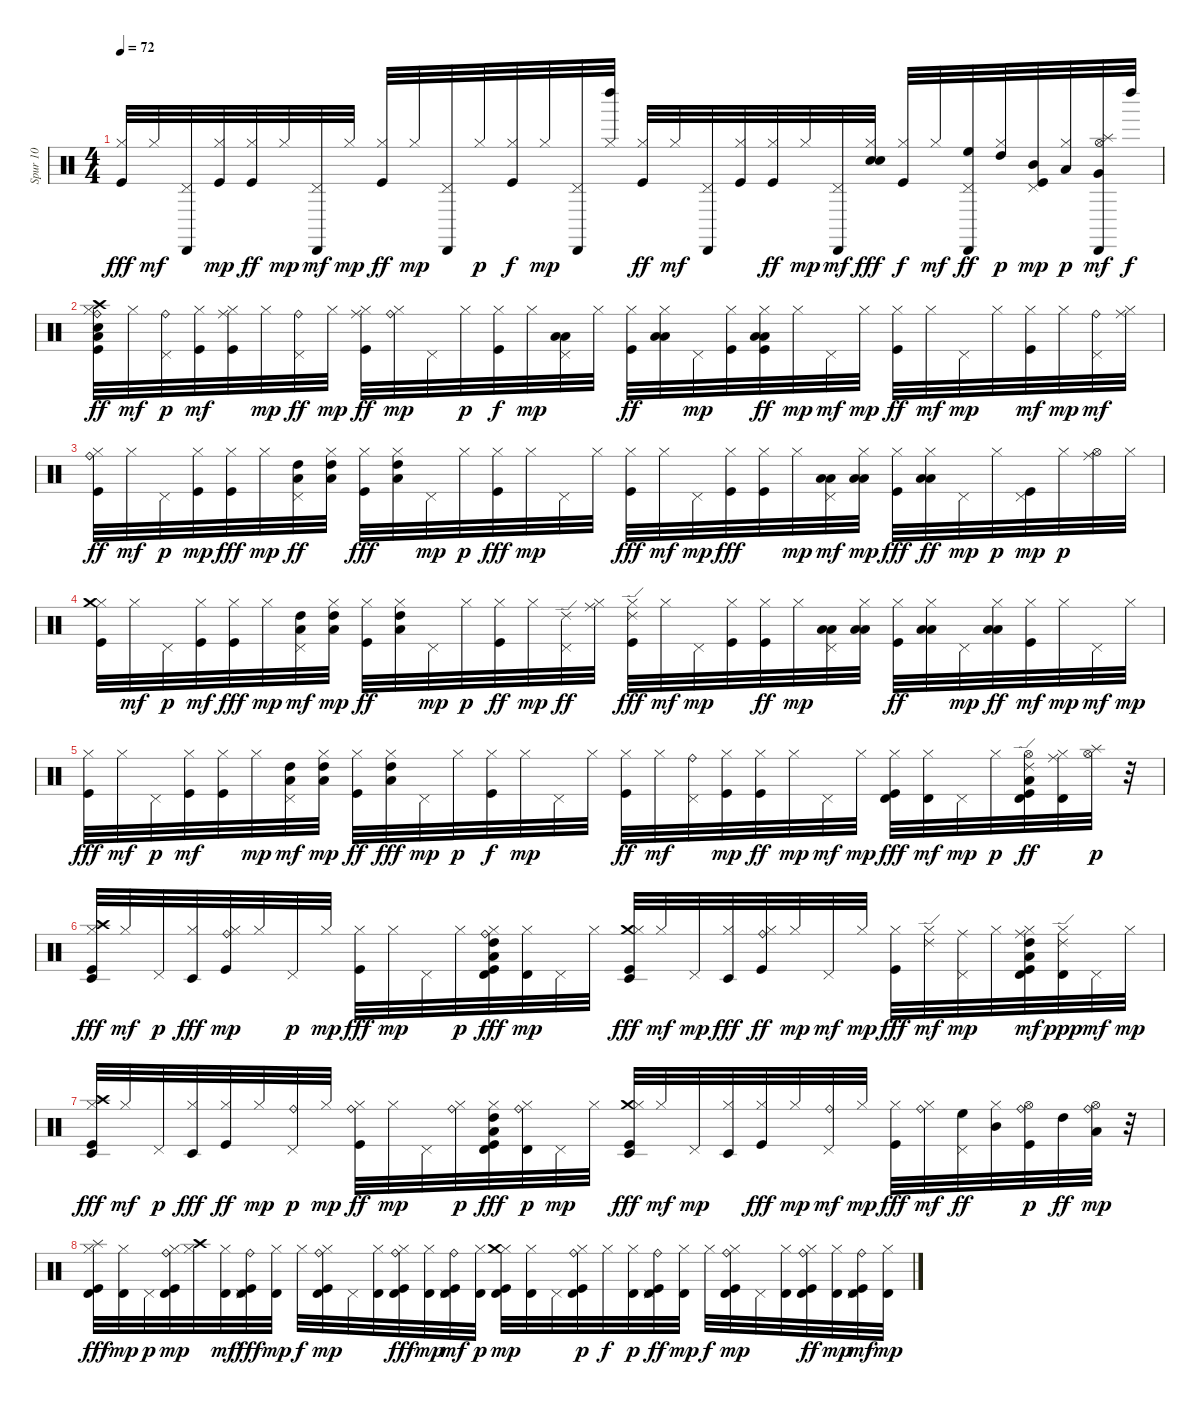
\track ("Spur 10" "Spur 10") {instrument percussion}
\staff {score}
\articulation defaults
\ts (4 4)
\tempo 72
\clef neutral
\ks c
("Kick (hit)" "Hi-Hat (closed)").32{dy fff} "Hi-Hat (closed)".32{dy mf} ("Pedal Hi-Hat (hit)" "Cabasa (hit)").32 ("Hi-Hat (closed)" "Kick (hit)").32{dy mp} ("Hi-Hat (closed)" "Kick (hit)").32{dy ff} "Hi-Hat (closed)".32{dy mp} ("Pedal Hi-Hat (hit)" "Cabasa (hit)").32{dy mf} "Hi-Hat (closed)".32{dy mp} ("Hi-Hat (closed)" "Kick (hit)").32{dy ff} "Hi-Hat (closed)".32{dy mp} ("Pedal Hi-Hat (hit)" "Cabasa (hit)").32 "Hi-Hat (closed)".32{dy p} ("Kick (hit)" "Hi-Hat (closed)").32{dy f} "Hi-Hat (closed)".32{dy mp} ("Pedal Hi-Hat (hit)" "Cabasa (hit)").32 ("Left Maraca (hit)" "Hi-Hat (closed)").32 ("Kick (hit)" "Hi-Hat (closed)").32{dy ff} "Hi-Hat (closed)".32{dy mf} ("Pedal Hi-Hat (hit)" "Cabasa (hit)").32 ("Hi-Hat (closed)" "Kick (hit)").32 ("Hi-Hat (closed)" "Kick (hit)").32{dy ff} "Hi-Hat (closed)".32{dy mp} ("Pedal Hi-Hat (hit)" "Cabasa (hit)").32{dy mf} ("Hi-Hat (closed)" "Electric Snare (hit)" "Hand Clap (hit)").32{dy fff} ("Hi-Hat (closed)" "Kick (hit)").32{dy f} "Hi-Hat (closed)".32{dy mf} ("Pedal Hi-Hat (hit)" "Cabasa (hit)" "High Floor Tom (hit)").32{dy ff} ("Hi-Hat (closed)" "High Tom (hit)").32{dy p} ("Kick (hit)" "Pedal Hi-Hat (hit)" "Mid Tom (hit)").32{dy mp} ("Low Tom (hit)" "Hi-Hat (closed)").32{dy p} ("Very Low Tom (hit)" "Splash (hit)" "Cabasa (hit)" "Hi-Hat (open)").32{dy mf} "Left Maraca (hit)".32{dy f} |
("Kick (hit)" "Hi-Hat (closed)" "Electric Snare (hit)" "Ride (bell)" "Low Floor Tom (hit)" "Crash high (hit)").32{dy ff} "Hi-Hat (closed)".32{dy mf} ("Ride (bell)" "Pedal Hi-Hat (hit)").32{dy p} ("Hi-Hat (closed)" "Kick (hit)").32{dy mf} ("Hi-Hat (closed)" "Kick (hit)" "Ride (middle)").32 "Hi-Hat (closed)".32{dy mp} ("Pedal Hi-Hat (hit)" "Ride (bell)").32{dy ff} "Hi-Hat (closed)".32{dy mp} ("Ride (middle)" "Hi-Hat (closed)" "Kick (hit)").32{dy ff} ("Ride (bell)" "Hi-Hat (closed)").32{dy mp} "Pedal Hi-Hat (hit)".32 "Hi-Hat (closed)".32{dy p} ("Kick (hit)" "Hi-Hat (closed)").32{dy f} "Hi-Hat (closed)".32{dy mp} ("Low Floor Tom (hit)" "Pedal Hi-Hat (hit)" "Low Tom (hit)").32 "Hi-Hat (closed)".32 ("Kick (hit)" "Hi-Hat (closed)").32{dy ff} ("Low Floor Tom (hit)" "Hi-Hat (closed)" "Low Tom (hit)").32 "Pedal Hi-Hat (hit)".32{dy mp} ("Hi-Hat (closed)" "Kick (hit)").32 ("Hi-Hat (closed)" "Low Floor Tom (hit)" "Kick (hit)" "Low Tom (hit)").32{dy ff} "Hi-Hat (closed)".32{dy mp} "Pedal Hi-Hat (hit)".32{dy mf} "Hi-Hat (closed)".32{dy mp} ("Hi-Hat (closed)" "Kick (hit)").32{dy ff} "Hi-Hat (closed)".32{dy mf} "Pedal Hi-Hat (hit)".32{dy mp} "Hi-Hat (closed)".32 ("Kick (hit)" "Hi-Hat (closed)").32{dy mf} "Hi-Hat (closed)".32{dy mp} ("Pedal Hi-Hat (hit)" "Ride (bell)").32{dy mf} ("Hi-Hat (closed)" "Ride (middle)").32 |
("Kick (hit)" "Hi-Hat (closed)" "Ride (bell)").32{dy ff} "Hi-Hat (closed)".32{dy mf} "Pedal Hi-Hat (hit)".32{dy p} ("Hi-Hat (closed)" "Kick (hit)").32{dy mp} ("Hi-Hat (closed)" "Kick (hit)").32{dy fff} "Hi-Hat (closed)".32{dy mp} ("Pedal Hi-Hat (hit)" "High Tom (hit)" "Low Tom (hit)").32{dy ff} ("Hi-Hat (closed)" "High Tom (hit)" "Low Tom (hit)").32 ("Hi-Hat (closed)" "Kick (hit)").32{dy fff} ("Hi-Hat (closed)" "High Tom (hit)" "Low Tom (hit)").32 "Pedal Hi-Hat (hit)".32{dy mp} "Hi-Hat (closed)".32{dy p} ("Kick (hit)" "Hi-Hat (closed)").32{dy fff} "Hi-Hat (closed)".32{dy mp} "Pedal Hi-Hat (hit)".32 "Hi-Hat (closed)".32 ("Kick (hit)" "Hi-Hat (closed)").32{dy fff} "Hi-Hat (closed)".32{dy mf} "Pedal Hi-Hat (hit)".32{dy mp} ("Hi-Hat (closed)" "Kick (hit)").32{dy fff} ("Hi-Hat (closed)" "Kick (hit)").32 "Hi-Hat (closed)".32{dy mp} ("Pedal Hi-Hat (hit)" "Low Tom (hit)" "Low Floor Tom (hit)").32{dy mf} ("Hi-Hat (closed)" "Low Tom (hit)" "Low Floor Tom (hit)").32{dy mp} ("Hi-Hat (closed)" "Kick (hit)").32{dy fff} ("Hi-Hat (closed)" "Low Floor Tom (hit)" "Low Tom (hit)").32{dy ff} "Pedal Hi-Hat (hit)".32{dy mp} "Hi-Hat (closed)".32{dy p} ("Kick (hit)" "Pedal Hi-Hat (hit)").32{dy mp} "Hi-Hat (closed)".32{dy p} ("Ride (middle)" "Hi-Hat (open)").32 "Hi-Hat (closed)".32 |
("Kick (hit)" "Hi-Hat (closed)" "Crash medium (hit)").32 "Hi-Hat (closed)".32{dy mf} "Pedal Hi-Hat (hit)".32{dy p} ("Hi-Hat (closed)" "Kick (hit)").32{dy mf} ("Hi-Hat (closed)" "Kick (hit)").32{dy fff} "Hi-Hat (closed)".32{dy mp} ("Pedal Hi-Hat (hit)" "High Tom (hit)" "Low Tom (hit)").32{dy mf} ("Hi-Hat (closed)" "High Tom (hit)" "Low Tom (hit)").32{dy mp} ("Hi-Hat (closed)" "Kick (hit)").32{dy ff} ("Hi-Hat (closed)" "Low Tom (hit)" "High Tom (hit)").32 "Pedal Hi-Hat (hit)".32{dy mp} "Hi-Hat (closed)".32{dy p} ("Kick (hit)" "Hi-Hat (closed)").32{dy ff} "Hi-Hat (closed)".32{dy mp} ("Pedal Hi-Hat (hit)" "Ride (edge) 2").32{dy ff} ("Hi-Hat (closed)" "Ride (middle)").32 ("Kick (hit)" "Hi-Hat (closed)" "Ride (edge) 2").32{dy fff} "Hi-Hat (closed)".32{dy mf} "Pedal Hi-Hat (hit)".32{dy mp} ("Hi-Hat (closed)" "Kick (hit)").32 ("Hi-Hat (closed)" "Kick (hit)").32{dy ff} "Hi-Hat (closed)".32{dy mp} ("Pedal Hi-Hat (hit)" "Low Tom (hit)" "Low Floor Tom (hit)").32 ("Hi-Hat (closed)" "Low Floor Tom (hit)" "Low Tom (hit)").32 ("Hi-Hat (closed)" "Kick (hit)").32{dy ff} ("Hi-Hat (closed)" "Low Floor Tom (hit)" "Low Tom (hit)").32 "Pedal Hi-Hat (hit)".32{dy mp} ("Hi-Hat (closed)" "Low Floor Tom (hit)" "Low Tom (hit)").32{dy ff} ("Kick (hit)" "Hi-Hat (closed)").32{dy mf} "Hi-Hat (closed)".32{dy mp} "Pedal Hi-Hat (hit)".32{dy mf} "Hi-Hat (closed)".32{dy mp} |
("Kick (hit)" "Hi-Hat (closed)").32{dy fff} "Hi-Hat (closed)".32{dy mf} "Pedal Hi-Hat (hit)".32{dy p} ("Hi-Hat (closed)" "Kick (hit)").32{dy mf} ("Hi-Hat (closed)" "Kick (hit)").32 "Hi-Hat (closed)".32{dy mp} ("High Tom (hit)" "Pedal Hi-Hat (hit)" "Low Tom (hit)").32{dy mf} ("High Tom (hit)" "Hi-Hat (closed)" "Low Tom (hit)").32{dy mp} ("Hi-Hat (closed)" "Kick (hit)").32{dy ff} ("Hi-Hat (closed)" "Low Tom (hit)" "High Tom (hit)").32{dy fff} "Pedal Hi-Hat (hit)".32{dy mp} "Hi-Hat (closed)".32{dy p} ("Kick (hit)" "Hi-Hat (closed)").32{dy f} "Hi-Hat (closed)".32{dy mp} "Pedal Hi-Hat (hit)".32 "Hi-Hat (closed)".32 ("Kick (hit)" "Hi-Hat (closed)").32{dy ff} "Hi-Hat (closed)".32{dy mf} ("Pedal Hi-Hat (hit)" "Ride (bell)").32 ("Hi-Hat (closed)" "Kick (hit)").32{dy mp} ("Hi-Hat (closed)" "Kick (hit)").32{dy ff} "Hi-Hat (closed)".32{dy mp} "Pedal Hi-Hat (hit)".32{dy mf} "Hi-Hat (closed)".32{dy mp} ("Hi-Hat (closed)" "Kick (hit)" "Timbale high (hit)").32{dy fff} ("Hi-Hat (closed)" "Timbale high (hit)").32{dy mf} "Pedal Hi-Hat (hit)".32{dy mp} "Hi-Hat (closed)".32{dy p} ("Timbale high (hit)" "Kick (hit)" "Hi-Hat (open)" "Low Floor Tom (hit)" "Ride (edge) 2").32{dy ff} ("Timbale high (hit)" "Hi-Hat (closed)" "Ride (middle)").32 ("Splash (hit)" "Hi-Hat (open)").32{dy p} r.32 |
("Kick (hit)" "Hi-Hat (closed)" "Crash high (hit)" "Timbale low (hit)").32{dy fff} "Hi-Hat (closed)".32{dy mf} "Pedal Hi-Hat (hit)".32{dy p} ("Hi-Hat (closed)" "Timbale low (hit)").32{dy fff} ("Hi-Hat (closed)" "Kick (hit)" "Ride (bell)").32{dy mp} "Hi-Hat (closed)".32 "Pedal Hi-Hat (hit)".32{dy p} "Hi-Hat (closed)".32{dy mp} ("Hi-Hat (closed)" "Kick (hit)").32{dy fff} "Hi-Hat (closed)".32{dy mp} "Pedal Hi-Hat (hit)".32 "Hi-Hat (closed)".32{dy p} ("Kick (hit)" "Hi-Hat (closed)" "Ride (bell)" "Timbale high (hit)" "Low Floor Tom (hit)" "High Tom (hit)").32{dy fff} ("Timbale high (hit)" "Hi-Hat (closed)").32{dy mp} "Pedal Hi-Hat (hit)".32 "Hi-Hat (closed)".32 ("Crash medium (hit)" "Kick (hit)" "Hi-Hat (closed)" "Timbale low (hit)").32{dy fff} "Hi-Hat (closed)".32{dy mf} "Pedal Hi-Hat (hit)".32{dy mp} ("Hi-Hat (closed)" "Timbale low (hit)").32{dy fff} ("Hi-Hat (closed)" "Ride (bell)" "Kick (hit)").32{dy ff} "Hi-Hat (closed)".32{dy mp} "Pedal Hi-Hat (hit)".32{dy mf} "Hi-Hat (closed)".32{dy mp} ("Hi-Hat (closed)" "Kick (hit)").32{dy fff} ("Hi-Hat (closed)" "Ride (edge) 2").32{dy mf} ("Pedal Hi-Hat (hit)" "Ride (middle)").32{dy mp} "Hi-Hat (closed)".32 ("Kick (hit)" "Hi-Hat (closed)" "Timbale high (hit)" "Low Floor Tom (hit)" "High Tom (hit)" "Ride (middle)").32{dy mf} ("Timbale high (hit)" "Hi-Hat (closed)" "Ride (edge) 2").32{dy ppp} "Pedal Hi-Hat (hit)".32{dy mf} "Hi-Hat (closed)".32{dy mp} |
("Crash high (hit)" "Kick (hit)" "Hi-Hat (closed)" "Timbale low (hit)").32{dy fff} "Hi-Hat (closed)".32{dy mf} "Pedal Hi-Hat (hit)".32{dy p} ("Hi-Hat (closed)" "Timbale low (hit)").32{dy fff} ("Hi-Hat (closed)" "Kick (hit)").32{dy ff} "Hi-Hat (closed)".32{dy mp} ("Ride (bell)" "Pedal Hi-Hat (hit)").32{dy p} "Hi-Hat (closed)".32{dy mp} ("Hi-Hat (closed)" "Ride (bell)" "Kick (hit)").32{dy ff} "Hi-Hat (closed)".32{dy mp} "Pedal Hi-Hat (hit)".32 ("Ride (bell)" "Hi-Hat (closed)").32{dy p} ("Kick (hit)" "Hi-Hat (closed)" "Timbale high (hit)" "Low Floor Tom (hit)" "High Tom (hit)").32{dy fff} ("Timbale high (hit)" "Hi-Hat (closed)" "Ride (bell)").32{dy p} "Pedal Hi-Hat (hit)".32{dy mp} "Hi-Hat (closed)".32 ("Crash medium (hit)" "Kick (hit)" "Hi-Hat (closed)" "Timbale low (hit)").32{dy fff} "Hi-Hat (closed)".32{dy mf} "Pedal Hi-Hat (hit)".32{dy mp} ("Timbale low (hit)" "Hi-Hat (closed)").32 ("Hi-Hat (closed)" "Kick (hit)").32{dy fff} "Hi-Hat (closed)".32{dy mp} ("Ride (bell)" "Pedal Hi-Hat (hit)").32{dy mf} "Hi-Hat (closed)".32{dy mp} ("Hi-Hat (closed)" "Kick (hit)").32{dy fff} ("Ride (bell)" "Hi-Hat (closed)").32{dy mf} ("Pedal Hi-Hat (hit)" "High Floor Tom (hit)").32{dy ff} ("Hi-Hat (closed)" "Mid Tom (hit)").32 ("Ride (bell)" "Kick (hit)" "Hi-Hat (open)").32{dy p} "High Tom (hit)".32{dy ff} ("Low Tom (hit)" "Hi-Hat (open)" "Ride (bell)").32{dy mp} r.32 |
("Kick (hit)" "Hi-Hat (closed)" "Timbale high (hit)" "Splash (hit)").32{dy fff} ("Hi-Hat (closed)" "Timbale high (hit)").32{dy mp} "Pedal Hi-Hat (hit)".32{dy p} ("Kick (hit)" "Hi-Hat (closed)" "Timbale high (hit)" "Ride (bell)").32{dy mp} ("Hi-Hat (closed)" "Crash high (hit)").32 ("Hi-Hat (closed)" "Timbale high (hit)").32{dy mf} ("Timbale high (hit)" "Pedal Hi-Hat (hit)" "Ride (bell)" "Kick (hit)").32{dy fff} ("Timbale high (hit)" "Hi-Hat (closed)").32{dy mp} "Hi-Hat (closed)".32{dy f} ("Kick (hit)" "Ride (bell)" "Hi-Hat (closed)" "Timbale high (hit)").32{dy mp} "Pedal Hi-Hat (hit)".32 ("Hi-Hat (closed)" "Timbale high (hit)").32 ("Ride (bell)" "Kick (hit)" "Hi-Hat (closed)" "Timbale high (hit)").32{dy fff} ("Hi-Hat (closed)" "Timbale high (hit)").32{dy mp} ("Kick (hit)" "Pedal Hi-Hat (hit)" "Timbale high (hit)" "Ride (bell)").32{dy mf} ("Hi-Hat (closed)" "Timbale high (hit)").32{dy p} ("Kick (hit)" "Hi-Hat (closed)" "Timbale high (hit)" "Crash medium (hit)").32{dy mp} ("Hi-Hat (closed)" "Timbale high (hit)").32 "Pedal Hi-Hat (hit)".32 ("Ride (bell)" "Hi-Hat (closed)" "Kick (hit)" "Timbale high (hit)").32{dy p} "Hi-Hat (closed)".32{dy f} ("Hi-Hat (closed)" "Timbale high (hit)").32{dy p} ("Ride (bell)" "Pedal Hi-Hat (hit)" "Kick (hit)" "Timbale high (hit)").32{dy ff} ("Hi-Hat (closed)" "Timbale high (hit)").32{dy mp} "Hi-Hat (closed)".32{dy f} ("Ride (bell)" "Kick (hit)" "Hi-Hat (closed)" "Timbale high (hit)").32{dy mp} "Pedal Hi-Hat (hit)".32 ("Hi-Hat (closed)" "Timbale high (hit)").32 ("Ride (bell)" "Kick (hit)" "Hi-Hat (closed)" "Timbale high (hit)").32{dy ff} ("Timbale high (hit)" "Hi-Hat (closed)").32{dy mp} ("Kick (hit)" "Ride (bell)" "Pedal Hi-Hat (hit)" "Timbale high (hit)").32{dy mf} ("Timbale high (hit)" "Hi-Hat (closed)").32{dy mp}
